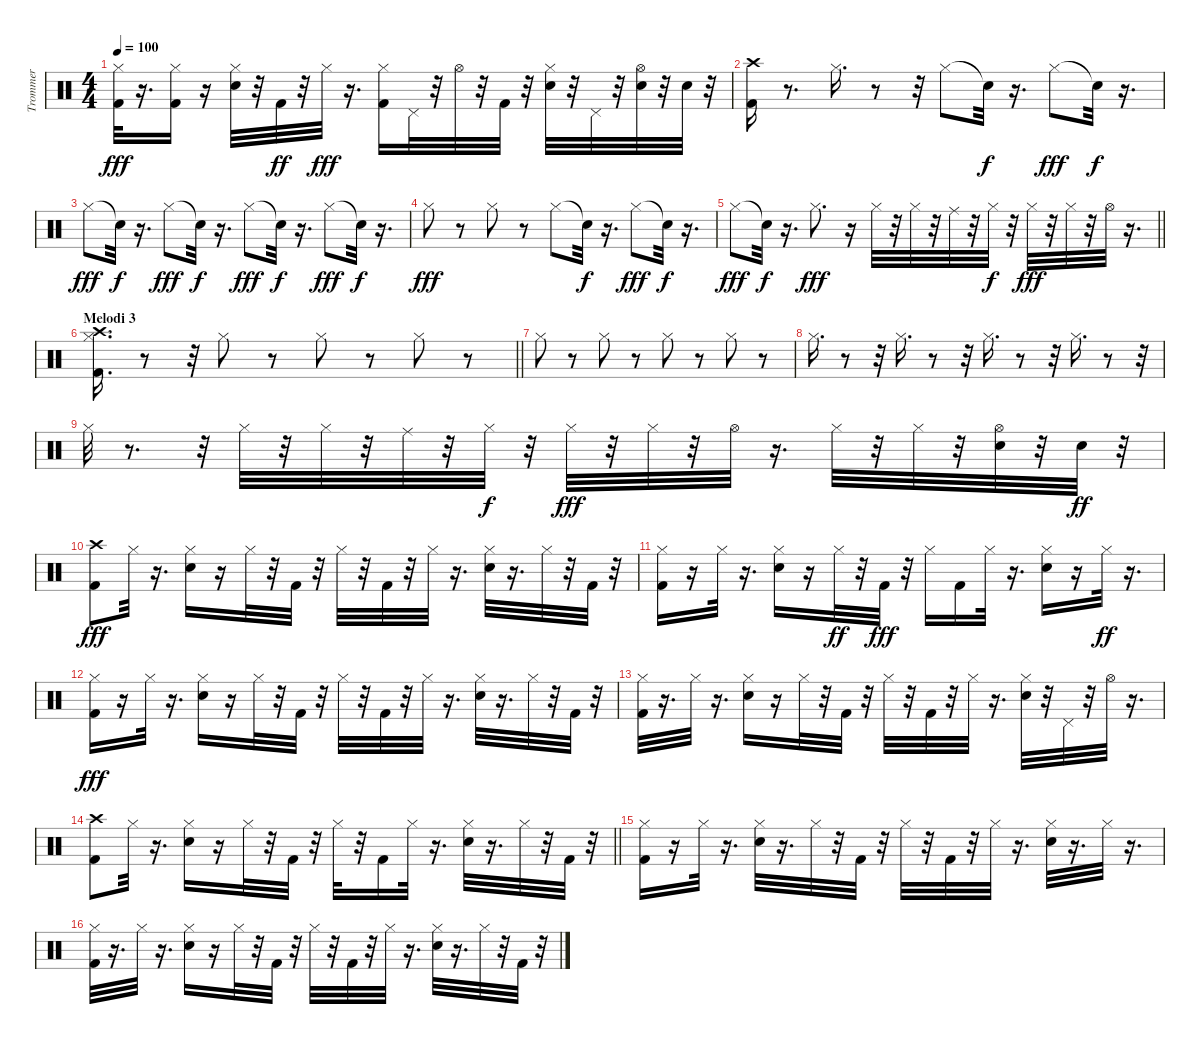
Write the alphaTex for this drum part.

\track ("Trommer" "Trommer") {instrument percussion}
\staff {score}
\articulation defaults
\ts (4 4)
\tempo 100
\clef neutral
\ks c
("Kick (hit) 2" "Hi-Hat (closed)").32{dy fff} r.16{d} ("Kick (hit) 2" "Hi-Hat (closed)").16 r.16 ("Snare (hit) 2" "Hi-Hat (closed)").32 r.32 "Kick (hit) 2".32{dy ff} r.32 "Hi-Hat (closed)".32{dy fff} r.16{d} ("Kick (hit) 2" "Hi-Hat (closed)").16 "Pedal Hi-Hat (hit)".32 r.32 "Hi-Hat (open)".32 r.32 "Kick (hit) 2".32 r.32 ("Snare (hit) 2" "Hi-Hat (closed)").32 r.32 "Pedal Hi-Hat (hit)".32 r.32 ("Snare (hit) 2" "Hi-Hat (open)").32 r.32 "Snare (hit) 2".32 r.32 |
("Kick (hit) 2" "Crash high (hit)").16 r.8{d} "Hi-Hat (closed)".16{d} r.8 r.32 "Hi-Hat (closed)".8 "Snare (hit)"{t}.32{dy f} r.16{d} "Hi-Hat (closed)".8{dy fff} "Snare (hit)"{t}.32{dy f} r.16{d} |
"Hi-Hat (closed)".8{dy fff} "Snare (hit)"{t}.32{dy f} r.16{d} "Hi-Hat (closed)".8{dy fff} "Snare (hit)"{t}.32{dy f} r.16{d} "Hi-Hat (closed)".8{dy fff} "Snare (hit)"{t}.32{dy f} r.16{d} "Hi-Hat (closed)".8{dy fff} "Snare (hit)"{t}.32{dy f} r.16{d} |
"Hi-Hat (closed)".8{dy fff} r.8 "Hi-Hat (closed)".8 r.8 "Hi-Hat (closed)".8 "Snare (hit)"{t}.32{dy f} r.16{d} "Hi-Hat (closed)".8{dy fff} "Snare (hit)"{t}.32{dy f} r.16{d} |
\barLineRight lightlight "Hi-Hat (closed)".8{dy fff} "Snare (hit)"{t}.32{dy f}
r.16{d} "Hi-Hat (closed)".8{d dy fff} r.16 "Hi-Hat (closed)".32 r.32 "Hi-Hat (closed)".32 r.32 "Ride (middle)".32 r.32 "Hi-Hat (closed)".32{dy f} r.32 "Hi-Hat (closed)".32{dy fff} r.32 "Hi-Hat (closed)".32 r.32 "Hi-Hat (open)".32 r.16{d} |
\section ("" "Melodi 3")
\barLineRight lightlight
("Kick (hit) 2" "Hi-Hat (closed)" "Crash high (hit)").16{d} r.8 r.32 "Hi-Hat (closed)".8 r.8 "Hi-Hat (closed)".8 r.8 "Hi-Hat (closed)".8 r.8 |
"Hi-Hat (closed)".8 r.8 "Hi-Hat (closed)".8 r.8 "Hi-Hat (closed)".8 r.8 "Hi-Hat (closed)".8 r.8 |
"Hi-Hat (closed)".16{d} r.8 r.32 "Hi-Hat (closed)".16{d} r.8 r.32 "Hi-Hat (closed)".16{d} r.8 r.32 "Hi-Hat (closed)".16{d} r.8 r.32 |
"Hi-Hat (closed)".32 r.8{d} r.32 "Hi-Hat (closed)".32 r.32 "Hi-Hat (closed)".32 r.32 "Ride (middle)".32 r.32 "Hi-Hat (closed)".32{dy f} r.32 "Hi-Hat (closed)".32{dy fff} r.32 "Hi-Hat (closed)".32 r.32 "Hi-Hat (open)".32 r.16{d} "Hi-Hat (closed)".32 r.32 "Hi-Hat (closed)".32 r.32 ("Snare (hit) 2" "Hi-Hat (open)").32 r.32 "Snare (hit) 2".32{dy ff} r.32 |
("Kick (hit) 2" "Crash high (hit)").8{dy fff} "Hi-Hat (closed)".32 r.16{d} ("Snare (hit) 2" "Hi-Hat (closed)").16 r.16 "Hi-Hat (closed)".32 r.32 "Kick (hit) 2".32 r.32 "Hi-Hat (closed)".32 r.32 "Kick (hit) 2".32 r.32 "Hi-Hat (closed)".32 r.16{d} ("Snare (hit) 2" "Hi-Hat (closed)").32 r.16{d} "Hi-Hat (closed)".32 r.32 "Kick (hit) 2".32 r.32 |
("Kick (hit) 2" "Hi-Hat (closed)").16 r.16 "Hi-Hat (closed)".32 r.16{d} ("Snare (hit) 2" "Hi-Hat (closed)").16 r.16 "Hi-Hat (closed)".32{dy ff} r.32 "Kick (hit) 2".32{dy fff} r.32 "Hi-Hat (closed)".16 "Kick (hit) 2".16 "Hi-Hat (closed)".32 r.16{d} ("Snare (hit) 2" "Hi-Hat (closed)").16 r.16 "Hi-Hat (closed)".32{dy ff} r.16{d} |
("Kick (hit) 2" "Hi-Hat (closed)").16{dy fff} r.16 "Hi-Hat (closed)".32 r.16{d} ("Snare (hit) 2" "Hi-Hat (closed)").16 r.16 "Hi-Hat (closed)".32 r.32 "Kick (hit) 2".32 r.32 "Hi-Hat (closed)".32 r.32 "Kick (hit) 2".32 r.32 "Hi-Hat (closed)".32 r.16{d} ("Snare (hit) 2" "Hi-Hat (closed)").32 r.16{d} "Hi-Hat (closed)".32 r.32 "Kick (hit) 2".32 r.32 |
("Kick (hit) 2" "Hi-Hat (closed)").32 r.16{d} "Hi-Hat (closed)".32 r.16{d} ("Snare (hit) 2" "Hi-Hat (closed)").16 r.16 "Hi-Hat (closed)".32 r.32 "Kick (hit) 2".32 r.32 "Hi-Hat (closed)".32 r.32 "Kick (hit) 2".32 r.32 "Hi-Hat (closed)".32 r.16{d} ("Snare (hit) 2" "Hi-Hat (closed)").32 r.32 "Pedal Hi-Hat (hit)".32 r.32 "Hi-Hat (open)".32 r.16{d} |
\barLineRight lightlight
("Kick (hit) 2" "Crash high (hit)").8 "Hi-Hat (closed)".32 r.16{d} ("Snare (hit) 2" "Hi-Hat (closed)").16 r.16 "Hi-Hat (closed)".32 r.32 "Kick (hit) 2".32 r.32 "Hi-Hat (closed)".32 r.32 "Kick (hit) 2".16 "Hi-Hat (closed)".32 r.16{d} ("Snare (hit) 2" "Hi-Hat (closed)").32 r.16{d} "Hi-Hat (closed)".32 r.32 "Kick (hit) 2".32 r.32 |
("Kick (hit) 2" "Hi-Hat (closed)").16 r.16 "Hi-Hat (closed)".32 r.16{d} ("Snare (hit) 2" "Hi-Hat (closed)").32 r.16{d} "Hi-Hat (closed)".32 r.32 "Kick (hit) 2".32 r.32 "Hi-Hat (closed)".32 r.32 "Kick (hit) 2".32 r.32 "Hi-Hat (closed)".32 r.16{d} ("Snare (hit) 2" "Hi-Hat (closed)").32 r.16{d} "Hi-Hat (closed)".32 r.16{d} |
("Kick (hit) 2" "Hi-Hat (closed)").32 r.16{d} "Hi-Hat (closed)".32 r.16{d} ("Snare (hit) 2" "Hi-Hat (closed)").16 r.16 "Hi-Hat (closed)".32 r.32 "Kick (hit) 2".32 r.32 "Hi-Hat (closed)".32 r.32 "Kick (hit) 2".32 r.32 "Hi-Hat (closed)".32 r.16{d} ("Snare (hit) 2" "Hi-Hat (closed)").32 r.16{d} "Hi-Hat (closed)".32 r.32 "Kick (hit) 2".32 r.32
